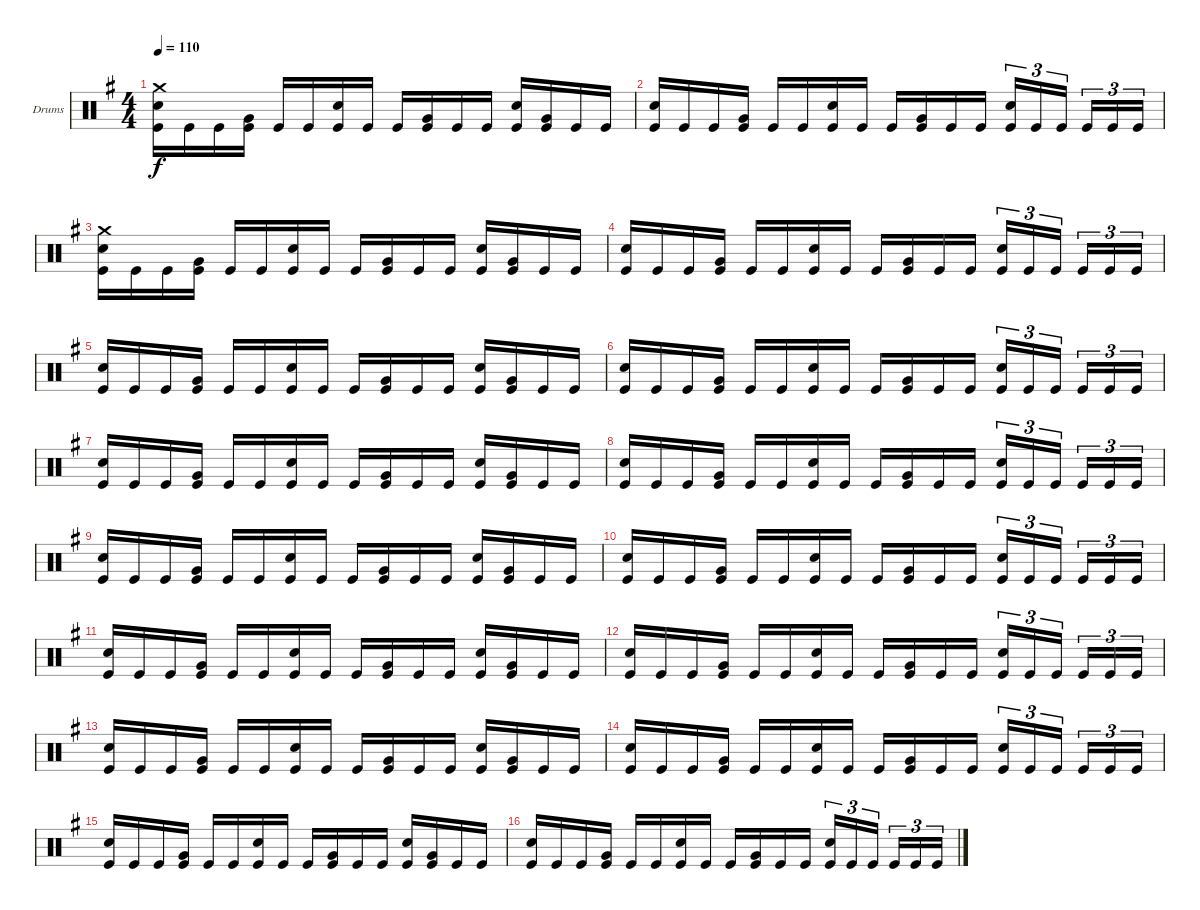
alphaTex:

\bracketExtendMode groupsimilarinstruments
\firstSystemTrackNameOrientation horizontal
\otherSystemsTrackNameOrientation horizontal
\track ("Drumkit" "Drums") {instrument percussion}
\staff {score}
\articulation defaults
\ts (4 4)
\beaming (8 2 2 2 2)
\tempo 110
\clef neutral
\ks g
("Crash medium (hit)" "Snare (hit) 2" "Kick (hit)").16{dy f} "Kick (hit)".16 "Kick (hit)".16 ("Very Low Tom (hit)" "Kick (hit)").16 "Kick (hit)".16 "Kick (hit)".16 ("Snare (hit) 2" "Kick (hit)").16 "Kick (hit)".16 "Kick (hit)".16 ("Very Low Tom (hit)" "Kick (hit)").16 "Kick (hit)".16 "Kick (hit)".16 ("Snare (hit) 2" "Kick (hit)").16 ("Very Low Tom (hit)" "Kick (hit)").16 "Kick (hit)".16 "Kick (hit)".16 |
("Snare (hit) 2" "Kick (hit)").16 "Kick (hit)".16 "Kick (hit)".16 ("Very Low Tom (hit)" "Kick (hit)").16 "Kick (hit)".16 "Kick (hit)".16 ("Snare (hit) 2" "Kick (hit)").16 "Kick (hit)".16 "Kick (hit)".16 ("Very Low Tom (hit)" "Kick (hit)").16 "Kick (hit)".16 "Kick (hit)".16 ("Snare (hit) 2" "Kick (hit)").16{tu (3 2)} "Kick (hit)".16{tu (3 2)} "Kick (hit)".16{tu (3 2)} "Kick (hit)".16{tu (3 2)} "Kick (hit)".16{tu (3 2)} "Kick (hit)".16{tu (3 2)} |
("Crash medium (hit)" "Snare (hit) 2" "Kick (hit)").16 "Kick (hit)".16 "Kick (hit)".16 ("Very Low Tom (hit)" "Kick (hit)").16 "Kick (hit)".16 "Kick (hit)".16 ("Snare (hit) 2" "Kick (hit)").16 "Kick (hit)".16 "Kick (hit)".16 ("Very Low Tom (hit)" "Kick (hit)").16 "Kick (hit)".16 "Kick (hit)".16 ("Snare (hit) 2" "Kick (hit)").16 ("Very Low Tom (hit)" "Kick (hit)").16 "Kick (hit)".16 "Kick (hit)".16 |
("Snare (hit) 2" "Kick (hit)").16 "Kick (hit)".16 "Kick (hit)".16 ("Very Low Tom (hit)" "Kick (hit)").16 "Kick (hit)".16 "Kick (hit)".16 ("Snare (hit) 2" "Kick (hit)").16 "Kick (hit)".16 "Kick (hit)".16 ("Very Low Tom (hit)" "Kick (hit)").16 "Kick (hit)".16 "Kick (hit)".16 ("Snare (hit) 2" "Kick (hit)").16{tu (3 2)} "Kick (hit)".16{tu (3 2)} "Kick (hit)".16{tu (3 2)} "Kick (hit)".16{tu (3 2)} "Kick (hit)".16{tu (3 2)} "Kick (hit)".16{tu (3 2)} |
("Snare (hit) 2" "Kick (hit)").16 "Kick (hit)".16 "Kick (hit)".16 ("Very Low Tom (hit)" "Kick (hit)").16 "Kick (hit)".16 "Kick (hit)".16 ("Snare (hit) 2" "Kick (hit)").16 "Kick (hit)".16 "Kick (hit)".16 ("Very Low Tom (hit)" "Kick (hit)").16 "Kick (hit)".16 "Kick (hit)".16 ("Snare (hit) 2" "Kick (hit)").16 ("Very Low Tom (hit)" "Kick (hit)").16 "Kick (hit)".16 "Kick (hit)".16 |
("Snare (hit) 2" "Kick (hit)").16 "Kick (hit)".16 "Kick (hit)".16 ("Very Low Tom (hit)" "Kick (hit)").16 "Kick (hit)".16 "Kick (hit)".16 ("Snare (hit) 2" "Kick (hit)").16 "Kick (hit)".16 "Kick (hit)".16 ("Very Low Tom (hit)" "Kick (hit)").16 "Kick (hit)".16 "Kick (hit)".16 ("Snare (hit) 2" "Kick (hit)").16{tu (3 2)} "Kick (hit)".16{tu (3 2)} "Kick (hit)".16{tu (3 2)} "Kick (hit)".16{tu (3 2)} "Kick (hit)".16{tu (3 2)} "Kick (hit)".16{tu (3 2)} |
("Snare (hit) 2" "Kick (hit)").16 "Kick (hit)".16 "Kick (hit)".16 ("Very Low Tom (hit)" "Kick (hit)").16 "Kick (hit)".16 "Kick (hit)".16 ("Snare (hit) 2" "Kick (hit)").16 "Kick (hit)".16 "Kick (hit)".16 ("Very Low Tom (hit)" "Kick (hit)").16 "Kick (hit)".16 "Kick (hit)".16 ("Snare (hit) 2" "Kick (hit)").16 ("Very Low Tom (hit)" "Kick (hit)").16 "Kick (hit)".16 "Kick (hit)".16 |
("Snare (hit) 2" "Kick (hit)").16 "Kick (hit)".16 "Kick (hit)".16 ("Very Low Tom (hit)" "Kick (hit)").16 "Kick (hit)".16 "Kick (hit)".16 ("Snare (hit) 2" "Kick (hit)").16 "Kick (hit)".16 "Kick (hit)".16 ("Very Low Tom (hit)" "Kick (hit)").16 "Kick (hit)".16 "Kick (hit)".16 ("Snare (hit) 2" "Kick (hit)").16{tu (3 2)} "Kick (hit)".16{tu (3 2)} "Kick (hit)".16{tu (3 2)} "Kick (hit)".16{tu (3 2)} "Kick (hit)".16{tu (3 2)} "Kick (hit)".16{tu (3 2)} |
("Snare (hit) 2" "Kick (hit)").16 "Kick (hit)".16 "Kick (hit)".16 ("Very Low Tom (hit)" "Kick (hit)").16 "Kick (hit)".16 "Kick (hit)".16 ("Snare (hit) 2" "Kick (hit)").16 "Kick (hit)".16 "Kick (hit)".16 ("Very Low Tom (hit)" "Kick (hit)").16 "Kick (hit)".16 "Kick (hit)".16 ("Snare (hit) 2" "Kick (hit)").16 ("Very Low Tom (hit)" "Kick (hit)").16 "Kick (hit)".16 "Kick (hit)".16 |
("Snare (hit) 2" "Kick (hit)").16 "Kick (hit)".16 "Kick (hit)".16 ("Very Low Tom (hit)" "Kick (hit)").16 "Kick (hit)".16 "Kick (hit)".16 ("Snare (hit) 2" "Kick (hit)").16 "Kick (hit)".16 "Kick (hit)".16 ("Very Low Tom (hit)" "Kick (hit)").16 "Kick (hit)".16 "Kick (hit)".16 ("Snare (hit) 2" "Kick (hit)").16{tu (3 2)} "Kick (hit)".16{tu (3 2)} "Kick (hit)".16{tu (3 2)} "Kick (hit)".16{tu (3 2)} "Kick (hit)".16{tu (3 2)} "Kick (hit)".16{tu (3 2)} |
("Snare (hit) 2" "Kick (hit)").16 "Kick (hit)".16 "Kick (hit)".16 ("Very Low Tom (hit)" "Kick (hit)").16 "Kick (hit)".16 "Kick (hit)".16 ("Snare (hit) 2" "Kick (hit)").16 "Kick (hit)".16 "Kick (hit)".16 ("Very Low Tom (hit)" "Kick (hit)").16 "Kick (hit)".16 "Kick (hit)".16 ("Snare (hit) 2" "Kick (hit)").16 ("Very Low Tom (hit)" "Kick (hit)").16 "Kick (hit)".16 "Kick (hit)".16 |
("Snare (hit) 2" "Kick (hit)").16 "Kick (hit)".16 "Kick (hit)".16 ("Very Low Tom (hit)" "Kick (hit)").16 "Kick (hit)".16 "Kick (hit)".16 ("Snare (hit) 2" "Kick (hit)").16 "Kick (hit)".16 "Kick (hit)".16 ("Very Low Tom (hit)" "Kick (hit)").16 "Kick (hit)".16 "Kick (hit)".16 ("Snare (hit) 2" "Kick (hit)").16{tu (3 2)} "Kick (hit)".16{tu (3 2)} "Kick (hit)".16{tu (3 2)} "Kick (hit)".16{tu (3 2)} "Kick (hit)".16{tu (3 2)} "Kick (hit)".16{tu (3 2)} |
("Snare (hit) 2" "Kick (hit)").16 "Kick (hit)".16 "Kick (hit)".16 ("Very Low Tom (hit)" "Kick (hit)").16 "Kick (hit)".16 "Kick (hit)".16 ("Snare (hit) 2" "Kick (hit)").16 "Kick (hit)".16 "Kick (hit)".16 ("Very Low Tom (hit)" "Kick (hit)").16 "Kick (hit)".16 "Kick (hit)".16 ("Snare (hit) 2" "Kick (hit)").16 ("Very Low Tom (hit)" "Kick (hit)").16 "Kick (hit)".16 "Kick (hit)".16 |
("Snare (hit) 2" "Kick (hit)").16 "Kick (hit)".16 "Kick (hit)".16 ("Very Low Tom (hit)" "Kick (hit)").16 "Kick (hit)".16 "Kick (hit)".16 ("Snare (hit) 2" "Kick (hit)").16 "Kick (hit)".16 "Kick (hit)".16 ("Very Low Tom (hit)" "Kick (hit)").16 "Kick (hit)".16 "Kick (hit)".16 ("Snare (hit) 2" "Kick (hit)").16{tu (3 2)} "Kick (hit)".16{tu (3 2)} "Kick (hit)".16{tu (3 2)} "Kick (hit)".16{tu (3 2)} "Kick (hit)".16{tu (3 2)} "Kick (hit)".16{tu (3 2)} |
("Snare (hit) 2" "Kick (hit)").16 "Kick (hit)".16 "Kick (hit)".16 ("Very Low Tom (hit)" "Kick (hit)").16 "Kick (hit)".16 "Kick (hit)".16 ("Snare (hit) 2" "Kick (hit)").16 "Kick (hit)".16 "Kick (hit)".16 ("Very Low Tom (hit)" "Kick (hit)").16 "Kick (hit)".16 "Kick (hit)".16 ("Snare (hit) 2" "Kick (hit)").16 ("Very Low Tom (hit)" "Kick (hit)").16 "Kick (hit)".16 "Kick (hit)".16 |
("Snare (hit) 2" "Kick (hit)").16 "Kick (hit)".16 "Kick (hit)".16 ("Very Low Tom (hit)" "Kick (hit)").16 "Kick (hit)".16 "Kick (hit)".16 ("Snare (hit) 2" "Kick (hit)").16 "Kick (hit)".16 "Kick (hit)".16 ("Very Low Tom (hit)" "Kick (hit)").16 "Kick (hit)".16 "Kick (hit)".16 ("Snare (hit) 2" "Kick (hit)").16{tu (3 2)} "Kick (hit)".16{tu (3 2)} "Kick (hit)".16{tu (3 2)} "Kick (hit)".16{tu (3 2)} "Kick (hit)".16{tu (3 2)} "Kick (hit)".16{tu (3 2)}
